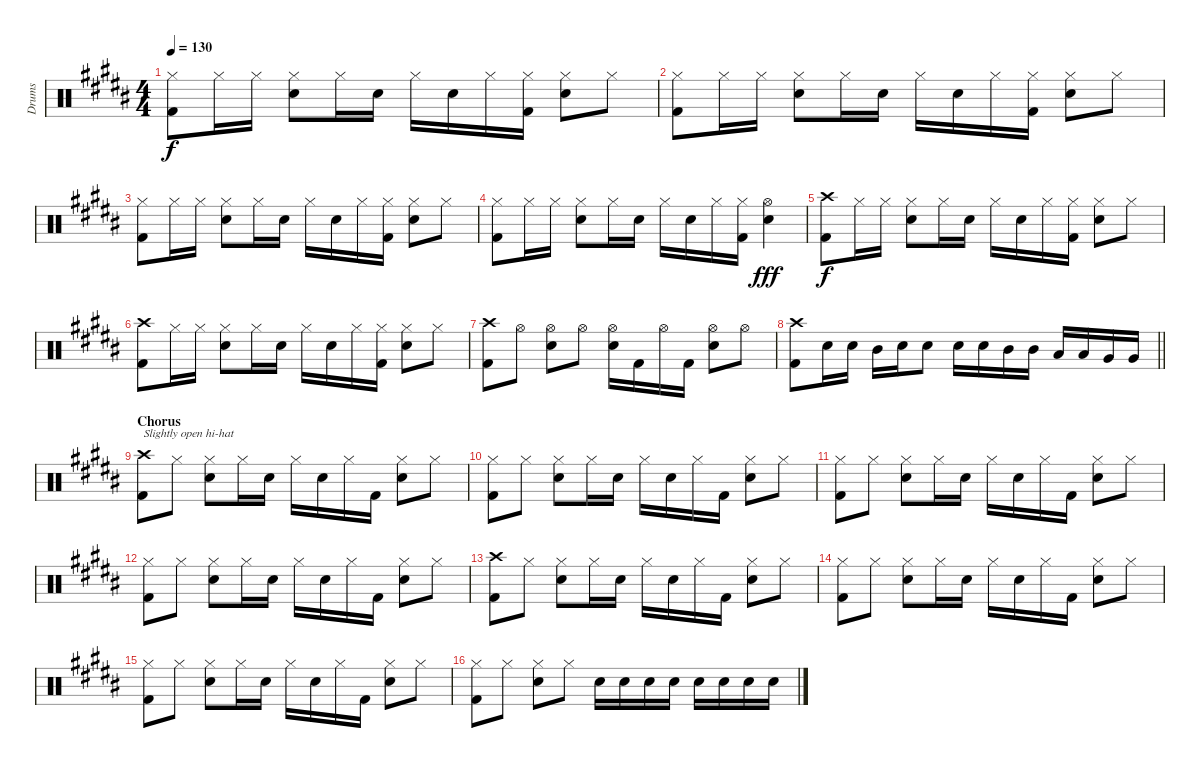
\track ("Drums" "Drums") {instrument percussion}
\staff {score}
\articulation defaults
\ts (4 4)
\tempo 130
\clef neutral
\ks b
("Kick (hit) 2" "Hi-Hat (closed)").8{dy f volume 11} "Hi-Hat (closed)".16 "Hi-Hat (closed)".16 ("Snare (hit) 2" "Hi-Hat (closed)").8 "Hi-Hat (closed)".16 "Snare (hit) 2".16 "Hi-Hat (closed)".16 "Snare (hit) 2".16 "Hi-Hat (closed)".16 ("Kick (hit) 2" "Hi-Hat (closed)").16 ("Snare (hit) 2" "Hi-Hat (closed)").8 "Hi-Hat (closed)".8 |
("Kick (hit) 2" "Hi-Hat (closed)").8{volume 11} "Hi-Hat (closed)".16 "Hi-Hat (closed)".16 ("Snare (hit) 2" "Hi-Hat (closed)").8 "Hi-Hat (closed)".16 "Snare (hit) 2".16 "Hi-Hat (closed)".16 "Snare (hit) 2".16 "Hi-Hat (closed)".16 ("Kick (hit) 2" "Hi-Hat (closed)").16 ("Snare (hit) 2" "Hi-Hat (closed)").8 "Hi-Hat (closed)".8 |
("Kick (hit) 2" "Hi-Hat (closed)").8{volume 11} "Hi-Hat (closed)".16 "Hi-Hat (closed)".16 ("Snare (hit) 2" "Hi-Hat (closed)").8 "Hi-Hat (closed)".16 "Snare (hit) 2".16 "Hi-Hat (closed)".16 "Snare (hit) 2".16 "Hi-Hat (closed)".16 ("Kick (hit) 2" "Hi-Hat (closed)").16 ("Snare (hit) 2" "Hi-Hat (closed)").8 "Hi-Hat (closed)".8 |
("Kick (hit) 2" "Hi-Hat (closed)").8{volume 11} "Hi-Hat (closed)".16 "Hi-Hat (closed)".16 ("Snare (hit) 2" "Hi-Hat (closed)").8 "Hi-Hat (closed)".16 "Snare (hit) 2".16 "Hi-Hat (closed)".16 "Snare (hit) 2".16 "Hi-Hat (closed)".16 ("Kick (hit) 2" "Hi-Hat (closed)").16 ("Snare (hit) 2" "Hi-Hat (open)").4{dy fff} |
("Kick (hit) 2" "Crash high (hit)").8{dy f} "Hi-Hat (closed)".16 "Hi-Hat (closed)".16 ("Snare (hit) 2" "Hi-Hat (closed)").8 "Hi-Hat (closed)".16 "Snare (hit) 2".16 "Hi-Hat (closed)".16 "Snare (hit) 2".16 "Hi-Hat (closed)".16 ("Kick (hit) 2" "Hi-Hat (closed)").16 ("Snare (hit) 2" "Hi-Hat (closed)").8 "Hi-Hat (closed)".8 |
("Kick (hit) 2" "Crash high (hit)").8 "Hi-Hat (closed)".16 "Hi-Hat (closed)".16 ("Snare (hit) 2" "Hi-Hat (closed)").8 "Hi-Hat (closed)".16 "Snare (hit) 2".16 "Hi-Hat (closed)".16 "Snare (hit) 2".16 "Hi-Hat (closed)".16 ("Kick (hit) 2" "Hi-Hat (closed)").16 ("Snare (hit) 2" "Hi-Hat (closed)").8 "Hi-Hat (closed)".8 |
("Kick (hit) 2" "Crash high (hit)").8 "Hi-Hat (open)".8 ("Snare (hit) 2" "Hi-Hat (open)").8 "Hi-Hat (open)".8 ("Snare (hit) 2" "Hi-Hat (open)").16 "Kick (hit) 2".16 "Hi-Hat (open)".16 "Kick (hit) 2".16 ("Snare (hit) 2" "Hi-Hat (open)").8 "Hi-Hat (open)".8 |
\barLineRight lightlight
("Kick (hit) 2" "Crash high (hit)").8 "Snare (hit) 2".16 "Snare (hit) 2".16 "Mid Tom (hit)".16 "Snare (hit) 2".16 "Snare (hit) 2".8 "Snare (hit) 2".16 "Snare (hit) 2".16 "Mid Tom (hit)".16 "Mid Tom (hit)".16 "Low Tom (hit)".16 "Low Tom (hit)".16 "Very Low Tom (hit)".16 "Very Low Tom (hit)".16 |
\section ("" "Chorus")
("Kick (hit) 2" "Crash high (hit)").8{txt "Slightly open hi-hat" volume 13} "Hi-Hat (closed)".8 ("Snare (hit) 2" "Hi-Hat (closed)").8 "Hi-Hat (closed)".16 "Snare (hit) 2".16 "Hi-Hat (closed)".16 "Snare (hit) 2".16 "Hi-Hat (closed)".16 "Kick (hit) 2".16 ("Snare (hit) 2" "Hi-Hat (closed)").8 "Hi-Hat (closed)".8 |
("Kick (hit) 2" "Hi-Hat (closed)").8 "Hi-Hat (closed)".8 ("Snare (hit) 2" "Hi-Hat (closed)").8 "Hi-Hat (closed)".16 "Snare (hit) 2".16 "Hi-Hat (closed)".16 "Snare (hit) 2".16 "Hi-Hat (closed)".16 "Kick (hit) 2".16 ("Snare (hit) 2" "Hi-Hat (closed)").8 "Hi-Hat (closed)".8 |
("Kick (hit) 2" "Hi-Hat (closed)").8 "Hi-Hat (closed)".8 ("Snare (hit) 2" "Hi-Hat (closed)").8 "Hi-Hat (closed)".16 "Snare (hit) 2".16 "Hi-Hat (closed)".16 "Snare (hit) 2".16 "Hi-Hat (closed)".16 "Kick (hit) 2".16 ("Snare (hit) 2" "Hi-Hat (closed)").8 "Hi-Hat (closed)".8 |
("Kick (hit) 2" "Hi-Hat (closed)").8 "Hi-Hat (closed)".8 ("Snare (hit) 2" "Hi-Hat (closed)").8 "Hi-Hat (closed)".16 "Snare (hit) 2".16 "Hi-Hat (closed)".16 "Snare (hit) 2".16 "Hi-Hat (closed)".16 "Kick (hit) 2".16 ("Snare (hit) 2" "Hi-Hat (closed)").8 "Hi-Hat (closed)".8 |
("Kick (hit) 2" "Crash high (hit)").8 "Hi-Hat (closed)".8 ("Snare (hit) 2" "Hi-Hat (closed)").8 "Hi-Hat (closed)".16 "Snare (hit) 2".16 "Hi-Hat (closed)".16 "Snare (hit) 2".16 "Hi-Hat (closed)".16 "Kick (hit) 2".16 ("Snare (hit) 2" "Hi-Hat (closed)").8 "Hi-Hat (closed)".8 |
("Kick (hit) 2" "Hi-Hat (closed)").8 "Hi-Hat (closed)".8 ("Snare (hit) 2" "Hi-Hat (closed)").8 "Hi-Hat (closed)".16 "Snare (hit) 2".16 "Hi-Hat (closed)".16 "Snare (hit) 2".16 "Hi-Hat (closed)".16 "Kick (hit) 2".16 ("Snare (hit) 2" "Hi-Hat (closed)").8 "Hi-Hat (closed)".8 |
("Kick (hit) 2" "Hi-Hat (closed)").8 "Hi-Hat (closed)".8 ("Snare (hit) 2" "Hi-Hat (closed)").8 "Hi-Hat (closed)".16 "Snare (hit) 2".16 "Hi-Hat (closed)".16 "Snare (hit) 2".16 "Hi-Hat (closed)".16 "Kick (hit) 2".16 ("Snare (hit) 2" "Hi-Hat (closed)").8 "Hi-Hat (closed)".8 |
("Kick (hit) 2" "Hi-Hat (closed)").8 "Hi-Hat (closed)".8 ("Snare (hit) 2" "Hi-Hat (closed)").8 "Hi-Hat (closed)".8 "Snare (hit) 2".16 "Snare (hit) 2".16 "Snare (hit) 2".16 "Snare (hit) 2".16 "Snare (hit) 2".16 "Snare (hit) 2".16 "Snare (hit) 2".16 "Snare (hit) 2".16
